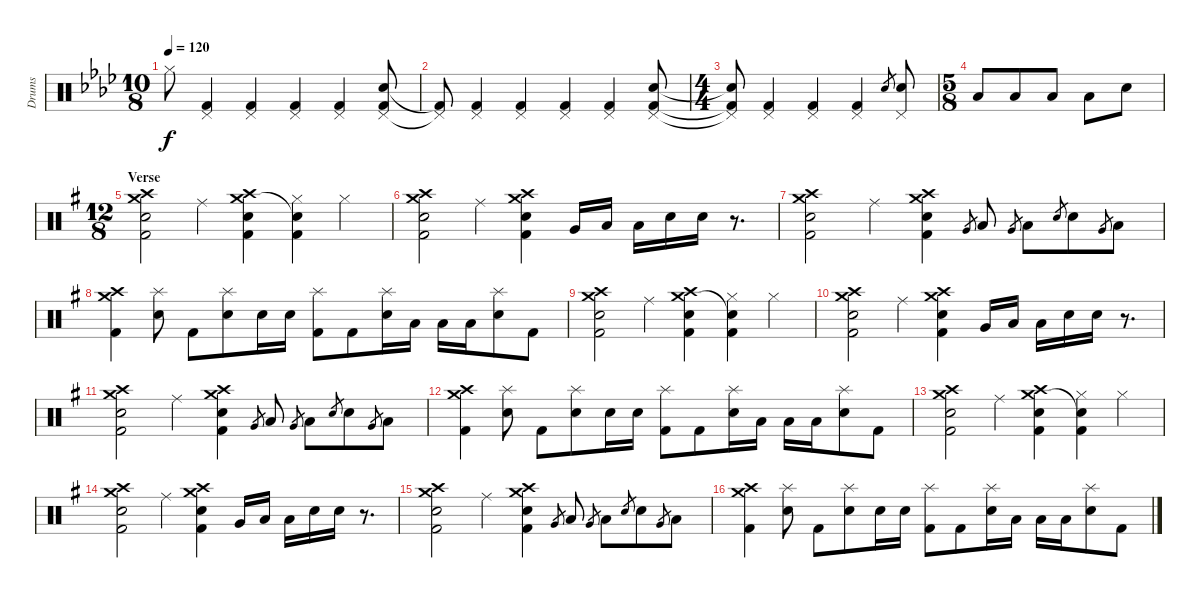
\track ("Drums" "Drums") {instrument percussion}
\staff {score}
\articulation defaults
\ts (10 8)
\tempo 120
\clef neutral
\ks ab "Hi-Hat (closed)"{t}.8{dy f}
("Pedal Hi-Hat (hit)" "Kick (hit) 2").4 ("Pedal Hi-Hat (hit)" "Kick (hit) 2").4 ("Pedal Hi-Hat (hit)" "Kick (hit) 2").4 ("Pedal Hi-Hat (hit)" "Kick (hit) 2").4 ("Pedal Hi-Hat (hit)" "Electric Snare (hit)" "Kick (hit) 2").8 |
("Pedal Hi-Hat (hit)"{t} "Kick (hit) 2"{t}).8 ("Pedal Hi-Hat (hit)" "Kick (hit) 2").4 ("Pedal Hi-Hat (hit)" "Kick (hit) 2").4 ("Pedal Hi-Hat (hit)" "Kick (hit) 2").4 ("Pedal Hi-Hat (hit)" "Kick (hit) 2").4 ("Pedal Hi-Hat (hit)" "Electric Snare (hit)" "Kick (hit) 2").8 |
\ts (4 4)
("Pedal Hi-Hat (hit)"{t} "Electric Snare (hit)"{t} "Kick (hit) 2"{t}).8 ("Pedal Hi-Hat (hit)" "Kick (hit) 2").4 ("Pedal Hi-Hat (hit)" "Kick (hit) 2").4 ("Pedal Hi-Hat (hit)" "Kick (hit) 2").4 "Electric Snare (hit)".8{gr} ("Pedal Hi-Hat (hit)" "Electric Snare (hit)").8 |
\ts (5 8)
"Low Tom (hit)".8 "Low Tom (hit)".8 "Low Tom (hit)".8 "Low Tom (hit)".8 "Electric Snare (hit)".8 |
\ts (12 8)
\section ("" "Verse")
\ks g
("Crash high (hit)" "Crash medium (hit)" "Electric Snare (hit)" "Kick (hit) 2").2 "Ride (middle)".4 ("Crash high (hit)" "Crash medium (hit)" "Electric Snare (hit)" "Kick (hit) 2").4 ("Hi-Hat (closed)" "Electric Snare (hit)"{t} "Kick (hit) 2").4 "Hi-Hat (closed)".4 |
("Crash high (hit)" "Crash medium (hit)" "Electric Snare (hit)" "Kick (hit) 2").2 "Ride (middle)".4 ("Crash high (hit)" "Crash medium (hit)" "Electric Snare (hit)" "Kick (hit) 2").4 "Very Low Tom (hit)".16 "Low Tom (hit)".16 "Low Tom (hit)".16 "Electric Snare (hit)".16 "Electric Snare (hit)".16 r.8{d} |
("Crash high (hit)" "Crash medium (hit)" "Electric Snare (hit)" "Kick (hit) 2").2 "Ride (middle)".4 ("Crash high (hit)" "Crash medium (hit)" "Electric Snare (hit)" "Kick (hit) 2").4 "Very Low Tom (hit)".8{gr} "Low Tom (hit)".8 "Very Low Tom (hit)".8{gr} "Low Tom (hit)".8 "Electric Snare (hit)".8{gr} "Electric Snare (hit)".8 "Very Low Tom (hit)".8{gr} "Low Tom (hit)".8 |
("Crash medium (hit)" "Crash high (hit)" "Kick (hit) 2").4 ("Splash (hit)" "Electric Snare (hit)").8 "Kick (hit) 2".8 ("Splash (hit)" "Electric Snare (hit)").8 "Electric Snare (hit)".16 "Electric Snare (hit)".16 ("Splash (hit)" "Kick (hit) 2").8 "Kick (hit) 2".8 ("Splash (hit)" "Electric Snare (hit)").16 "Low Tom (hit)".16 "Low Tom (hit)".16 "Low Tom (hit)".16 ("Splash (hit)" "Electric Snare (hit)").8 "Kick (hit) 2".8 |
("Crash high (hit)" "Crash medium (hit)" "Electric Snare (hit)" "Kick (hit) 2").2 "Ride (middle)".4 ("Crash high (hit)" "Crash medium (hit)" "Electric Snare (hit)" "Kick (hit) 2").4 ("Hi-Hat (closed)" "Electric Snare (hit)"{t} "Kick (hit) 2").4 "Hi-Hat (closed)".4 |
("Crash high (hit)" "Crash medium (hit)" "Electric Snare (hit)" "Kick (hit) 2").2 "Ride (middle)".4 ("Crash high (hit)" "Crash medium (hit)" "Electric Snare (hit)" "Kick (hit) 2").4 "Very Low Tom (hit)".16 "Low Tom (hit)".16 "Low Tom (hit)".16 "Electric Snare (hit)".16 "Electric Snare (hit)".16 r.8{d} |
("Crash high (hit)" "Crash medium (hit)" "Electric Snare (hit)" "Kick (hit) 2").2 "Ride (middle)".4 ("Crash high (hit)" "Crash medium (hit)" "Electric Snare (hit)" "Kick (hit) 2").4 "Very Low Tom (hit)".8{gr} "Low Tom (hit)".8 "Very Low Tom (hit)".8{gr} "Low Tom (hit)".8 "Electric Snare (hit)".8{gr} "Electric Snare (hit)".8 "Very Low Tom (hit)".8{gr} "Low Tom (hit)".8 |
("Crash medium (hit)" "Crash high (hit)" "Kick (hit) 2").4 ("Splash (hit)" "Electric Snare (hit)").8 "Kick (hit) 2".8 ("Splash (hit)" "Electric Snare (hit)").8 "Electric Snare (hit)".16 "Electric Snare (hit)".16 ("Splash (hit)" "Kick (hit) 2").8 "Kick (hit) 2".8 ("Splash (hit)" "Electric Snare (hit)").16 "Low Tom (hit)".16 "Low Tom (hit)".16 "Low Tom (hit)".16 ("Splash (hit)" "Electric Snare (hit)").8 "Kick (hit) 2".8 |
("Crash high (hit)" "Crash medium (hit)" "Electric Snare (hit)" "Kick (hit) 2").2 "Ride (middle)".4 ("Crash high (hit)" "Crash medium (hit)" "Electric Snare (hit)" "Kick (hit) 2").4 ("Hi-Hat (closed)" "Electric Snare (hit)"{t} "Kick (hit) 2").4 "Hi-Hat (closed)".4 |
("Crash high (hit)" "Crash medium (hit)" "Electric Snare (hit)" "Kick (hit) 2").2 "Ride (middle)".4 ("Crash high (hit)" "Crash medium (hit)" "Electric Snare (hit)" "Kick (hit) 2").4 "Very Low Tom (hit)".16 "Low Tom (hit)".16 "Low Tom (hit)".16 "Electric Snare (hit)".16 "Electric Snare (hit)".16 r.8{d} |
("Crash high (hit)" "Crash medium (hit)" "Electric Snare (hit)" "Kick (hit) 2").2 "Ride (middle)".4 ("Crash high (hit)" "Crash medium (hit)" "Electric Snare (hit)" "Kick (hit) 2").4 "Very Low Tom (hit)".8{gr} "Low Tom (hit)".8 "Very Low Tom (hit)".8{gr} "Low Tom (hit)".8 "Electric Snare (hit)".8{gr} "Electric Snare (hit)".8 "Very Low Tom (hit)".8{gr} "Low Tom (hit)".8 |
("Crash medium (hit)" "Crash high (hit)" "Kick (hit) 2").4 ("Splash (hit)" "Electric Snare (hit)").8 "Kick (hit) 2".8 ("Splash (hit)" "Electric Snare (hit)").8 "Electric Snare (hit)".16 "Electric Snare (hit)".16 ("Splash (hit)" "Kick (hit) 2").8 "Kick (hit) 2".8 ("Splash (hit)" "Electric Snare (hit)").16 "Low Tom (hit)".16 "Low Tom (hit)".16 "Low Tom (hit)".16 ("Splash (hit)" "Electric Snare (hit)").8 "Kick (hit) 2".8
